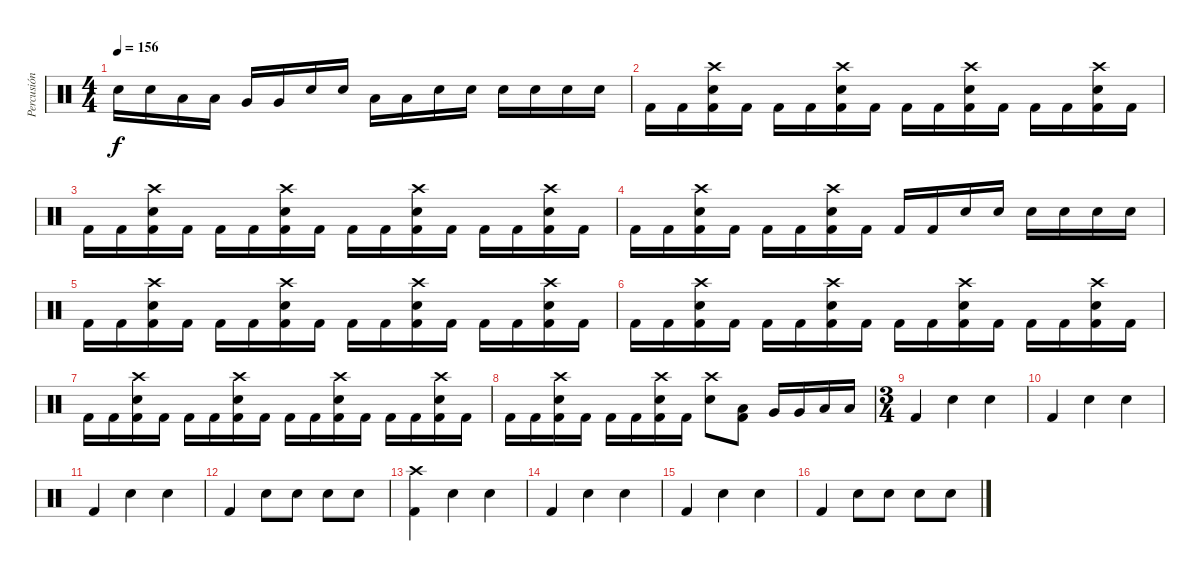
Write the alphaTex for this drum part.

\track ("Percusión" "Percusión") {instrument percussion}
\staff {score}
\articulation defaults
\ts (4 4)
\tempo 156
\clef neutral
\ks c "Electric Snare (hit)".16{dy f} "Electric Snare (hit)".16 "Low Tom (hit)".16 "Low Tom (hit)".16 "Very Low Tom (hit)".16 "Very Low Tom (hit)".16 "Electric Snare (hit)".16 "Electric Snare (hit)".16 "Low Tom (hit)".16 "Low Tom (hit)".16 "Electric Snare (hit)".16 "Electric Snare (hit)".16 "Electric Snare (hit)".16 "Electric Snare (hit)".16 "Electric Snare (hit)".16 "Electric Snare (hit)".16
|
"Kick (hit) 2".16 "Kick (hit) 2".16 ("Crash high (hit)" "Electric Snare (hit)" "Kick (hit) 2").16 "Kick (hit) 2".16 "Kick (hit) 2".16 "Kick (hit) 2".16 ("Crash high (hit)" "Electric Snare (hit)" "Kick (hit) 2").16 "Kick (hit) 2".16 "Kick (hit) 2".16 "Kick (hit) 2".16 ("Crash high (hit)" "Electric Snare (hit)" "Kick (hit) 2").16 "Kick (hit) 2".16 "Kick (hit) 2".16 "Kick (hit) 2".16 ("Crash high (hit)" "Electric Snare (hit)" "Kick (hit) 2").16 "Kick (hit) 2".16 |
"Kick (hit) 2".16 "Kick (hit) 2".16 ("Crash high (hit)" "Electric Snare (hit)" "Kick (hit) 2").16 "Kick (hit) 2".16 "Kick (hit) 2".16 "Kick (hit) 2".16 ("Crash high (hit)" "Electric Snare (hit)" "Kick (hit) 2").16 "Kick (hit) 2".16 "Kick (hit) 2".16 "Kick (hit) 2".16 ("Crash high (hit)" "Electric Snare (hit)" "Kick (hit) 2").16 "Kick (hit) 2".16 "Kick (hit) 2".16 "Kick (hit) 2".16 ("Crash high (hit)" "Electric Snare (hit)" "Kick (hit) 2").16 "Kick (hit) 2".16 |
"Kick (hit) 2".16 "Kick (hit) 2".16 ("Crash high (hit)" "Electric Snare (hit)" "Kick (hit) 2").16 "Kick (hit) 2".16 "Kick (hit) 2".16 "Kick (hit) 2".16 ("Crash high (hit)" "Electric Snare (hit)" "Kick (hit) 2").16 "Kick (hit) 2".16 "Kick (hit) 2".16 "Kick (hit) 2".16 "Electric Snare (hit)".16 "Electric Snare (hit)".16 "Electric Snare (hit)".16 "Electric Snare (hit)".16 "Electric Snare (hit)".16 "Electric Snare (hit)".16 |
"Kick (hit) 2".16 "Kick (hit) 2".16 ("Crash high (hit)" "Electric Snare (hit)" "Kick (hit) 2").16 "Kick (hit) 2".16 "Kick (hit) 2".16 "Kick (hit) 2".16 ("Crash high (hit)" "Electric Snare (hit)" "Kick (hit) 2").16 "Kick (hit) 2".16 "Kick (hit) 2".16 "Kick (hit) 2".16 ("Crash high (hit)" "Electric Snare (hit)" "Kick (hit) 2").16 "Kick (hit) 2".16 "Kick (hit) 2".16 "Kick (hit) 2".16 ("Crash high (hit)" "Electric Snare (hit)" "Kick (hit) 2").16 "Kick (hit) 2".16 |
"Kick (hit) 2".16 "Kick (hit) 2".16 ("Crash high (hit)" "Electric Snare (hit)" "Kick (hit) 2").16 "Kick (hit) 2".16 "Kick (hit) 2".16 "Kick (hit) 2".16 ("Crash high (hit)" "Electric Snare (hit)" "Kick (hit) 2").16 "Kick (hit) 2".16 "Kick (hit) 2".16 "Kick (hit) 2".16 ("Crash high (hit)" "Electric Snare (hit)" "Kick (hit) 2").16 "Kick (hit) 2".16 "Kick (hit) 2".16 "Kick (hit) 2".16 ("Crash high (hit)" "Electric Snare (hit)" "Kick (hit) 2").16 "Kick (hit) 2".16 |
"Kick (hit) 2".16 "Kick (hit) 2".16 ("Crash high (hit)" "Electric Snare (hit)" "Kick (hit) 2").16 "Kick (hit) 2".16 "Kick (hit) 2".16 "Kick (hit) 2".16 ("Crash high (hit)" "Electric Snare (hit)" "Kick (hit) 2").16 "Kick (hit) 2".16 "Kick (hit) 2".16 "Kick (hit) 2".16 ("Crash high (hit)" "Electric Snare (hit)" "Kick (hit) 2").16 "Kick (hit) 2".16 "Kick (hit) 2".16 "Kick (hit) 2".16 ("Crash high (hit)" "Electric Snare (hit)" "Kick (hit) 2").16 "Kick (hit) 2".16 |
"Kick (hit) 2".16 "Kick (hit) 2".16 ("Crash high (hit)" "Electric Snare (hit)" "Kick (hit) 2").16 "Kick (hit) 2".16 "Kick (hit) 2".16 "Kick (hit) 2".16 ("Crash high (hit)" "Electric Snare (hit)" "Kick (hit) 2").16 "Kick (hit) 2".16 ("Crash high (hit)" "Electric Snare (hit)").8 ("Low Tom (hit)" "Kick (hit) 2").8 "Very Low Tom (hit)".16 "Very Low Tom (hit)".16 "Low Floor Tom (hit)".16 "Low Floor Tom (hit)".16 |
\ts (3 4)
"Kick (hit) 2".4 "Electric Snare (hit)".4 "Electric Snare (hit)".4 |
"Kick (hit) 2".4 "Electric Snare (hit)".4 "Electric Snare (hit)".4 |
"Kick (hit) 2".4 "Electric Snare (hit)".4 "Electric Snare (hit)".4 |
"Kick (hit) 2".4 "Electric Snare (hit)".8 "Electric Snare (hit)".8 "Electric Snare (hit)".8 "Electric Snare (hit)".8 |
("Crash high (hit)" "Kick (hit) 2").4 "Electric Snare (hit)".4 "Electric Snare (hit)".4 |
"Kick (hit) 2".4 "Electric Snare (hit)".4 "Electric Snare (hit)".4 |
"Kick (hit) 2".4 "Electric Snare (hit)".4 "Electric Snare (hit)".4 |
"Kick (hit) 2".4 "Electric Snare (hit)".8 "Electric Snare (hit)".8 "Electric Snare (hit)".8 "Electric Snare (hit)".8
